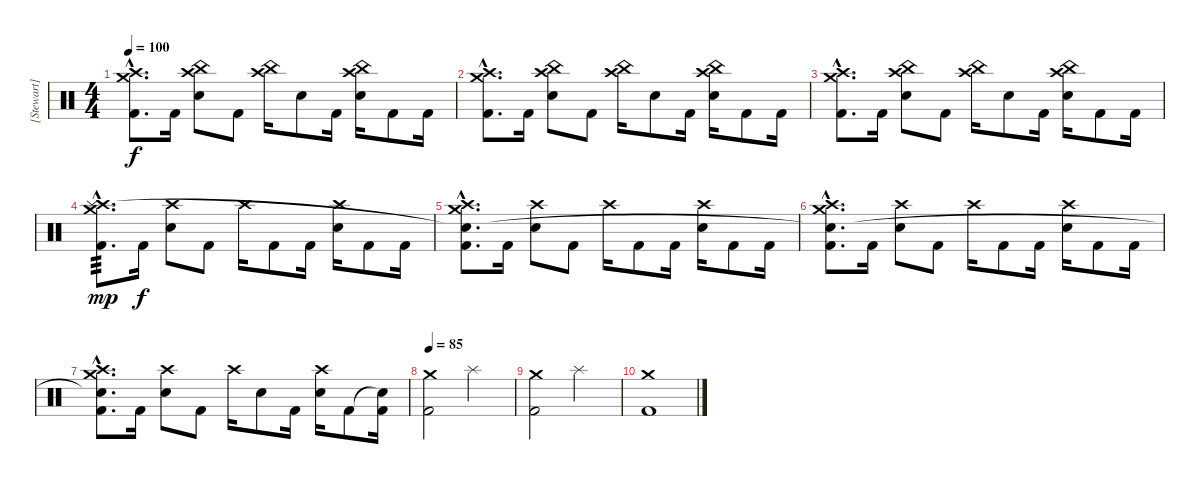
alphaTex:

\track ("[Stewart]" "[Stewart]") {instrument percussion}
\staff {score}
\articulation defaults
\ts (4 4)
\tempo 100
\clef neutral
\ks c
("Crash high (hit)"{hac} "Crash medium (hit)"{hac} "Kick (hit) 2"{hac}).8{d dy f} "Kick (hit) 2".16 ("Crash high (hit)" "China (hit)" "Electric Snare (hit)").8 "Kick (hit) 2".8 ("Crash high (hit)" "China (hit)").16 "Electric Snare (hit)".8 "Kick (hit) 2".16 ("Crash high (hit)" "China (hit)" "Electric Snare (hit)").16 "Kick (hit) 2".8 "Kick (hit) 2".16 |
("Crash high (hit)"{hac} "Crash medium (hit)"{hac} "Kick (hit) 2"{hac}).8{d} "Kick (hit) 2".16 ("Crash high (hit)" "China (hit)" "Electric Snare (hit)").8 "Kick (hit) 2".8 ("Crash high (hit)" "China (hit)").16 "Electric Snare (hit)".8 "Kick (hit) 2".16 ("Crash high (hit)" "China (hit)" "Electric Snare (hit)").16 "Kick (hit) 2".8 "Kick (hit) 2".16 |
("Crash high (hit)"{hac} "Crash medium (hit)"{hac} "Kick (hit) 2"{hac}).8{d} "Kick (hit) 2".16 ("Crash high (hit)" "China (hit)" "Electric Snare (hit)").8 "Kick (hit) 2".8 ("Crash high (hit)" "China (hit)").16 "Electric Snare (hit)".8 "Kick (hit) 2".16 ("Crash high (hit)" "China (hit)" "Electric Snare (hit)").16 "Kick (hit) 2".8 "Kick (hit) 2".16 |
("Crash high (hit)"{hac} "Crash medium (hit)"{hac} "Splash (hit)"{hac} "Kick (hit) 2"{hac}).8{d tp 3 dy mp} "Kick (hit) 2".16{dy f} ("Crash high (hit)" "Electric Snare (hit)").8 "Kick (hit) 2".8 "Crash high (hit)".16 "Kick (hit) 2".8 "Kick (hit) 2".16 ("Crash high (hit)" "Electric Snare (hit)").16 "Kick (hit) 2".8 "Kick (hit) 2".16 |
("Crash high (hit)"{hac} "Crash medium (hit)"{hac} "Snare (hit)"{hac t} "Kick (hit) 2"{hac}).8{d} "Kick (hit) 2".16 ("Crash high (hit)" "Electric Snare (hit)").8 "Kick (hit) 2".8 "Crash high (hit)".16 "Kick (hit) 2".8 "Kick (hit) 2".16 ("Crash high (hit)" "Electric Snare (hit)").16 "Kick (hit) 2".8 "Kick (hit) 2".16 |
("Crash high (hit)"{hac} "Crash medium (hit)"{hac} "Snare (hit)"{hac t} "Kick (hit) 2"{hac}).8{d} "Kick (hit) 2".16 ("Crash high (hit)" "Electric Snare (hit)").8 "Kick (hit) 2".8 "Crash high (hit)".16 "Kick (hit) 2".8 "Kick (hit) 2".16 ("Crash high (hit)" "Electric Snare (hit)").16 "Kick (hit) 2".8 "Kick (hit) 2".16 |
("Crash high (hit)"{hac} "Crash medium (hit)"{hac} "Snare (hit)"{hac t} "Kick (hit) 2"{hac}).8{d} "Kick (hit) 2".16 ("Crash high (hit)" "Electric Snare (hit)").8 "Kick (hit) 2".8 "Crash high (hit)".16 "Electric Snare (hit)".8 "Kick (hit) 2".16 ("Crash high (hit)" "Electric Snare (hit)").16 "Kick (hit) 2".8 ("Snare (hit)"{t} "Kick (hit) 2").16 |
\tempo 85
("Crash medium (hit)" "Kick (hit) 2").2 "Splash (hit)".2 |
("Crash medium (hit)" "Kick (hit) 2").2 "Splash (hit)".2 |
("Crash medium (hit)" "Kick (hit) 2").1
